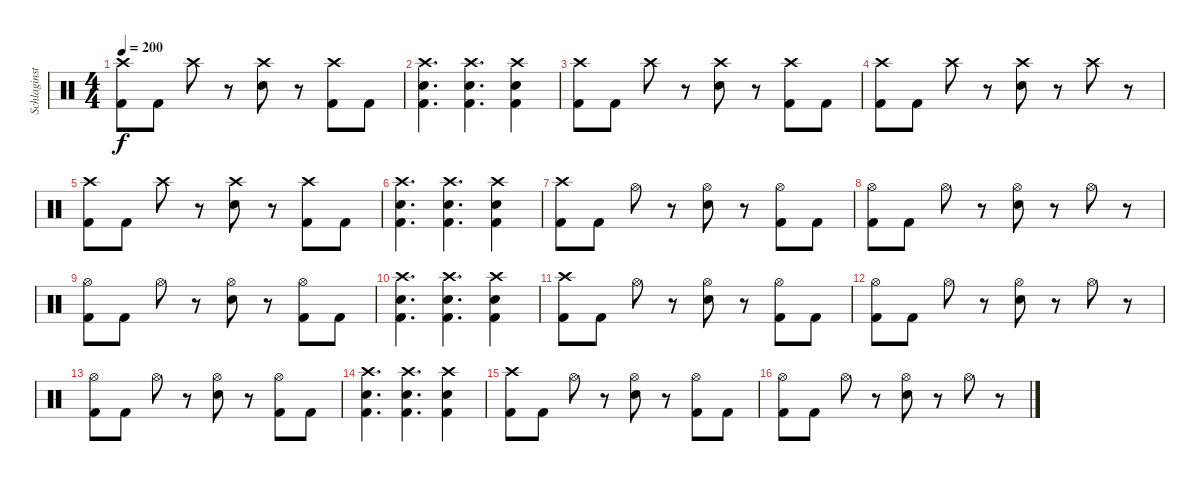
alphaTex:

\track ("Schlaginstrumente - Auswahl" "Schlaginst") {instrument percussion}
\staff {score}
\articulation defaults
\ts (4 4)
\tempo 200
\clef neutral
\ks c
("Crash high (hit)" "Kick (hit) 2").8{dy f} "Kick (hit) 2".8 "Crash high (hit)".8 r.8 ("Crash high (hit)" "Electric Snare (hit)").8 r.8 ("Crash high (hit)" "Kick (hit) 2").8 "Kick (hit) 2".8 |
("Crash high (hit)" "Electric Snare (hit)" "Kick (hit) 2").4{d} ("Crash high (hit)" "Electric Snare (hit)" "Kick (hit) 2").4{d} ("Crash high (hit)" "Electric Snare (hit)" "Kick (hit) 2").4 |
("Crash high (hit)" "Kick (hit) 2").8 "Kick (hit) 2".8 "Crash high (hit)".8 r.8 ("Crash high (hit)" "Electric Snare (hit)").8 r.8 ("Crash high (hit)" "Kick (hit) 2").8 "Kick (hit) 2".8 |
("Crash high (hit)" "Kick (hit) 2").8 "Kick (hit) 2".8 "Crash high (hit)".8 r.8 ("Crash high (hit)" "Electric Snare (hit)").8 r.8 "Crash high (hit)".8 r.8 |
("Crash high (hit)" "Kick (hit) 2").8 "Kick (hit) 2".8 "Crash high (hit)".8 r.8 ("Crash high (hit)" "Electric Snare (hit)").8 r.8 ("Crash high (hit)" "Kick (hit) 2").8 "Kick (hit) 2".8 |
("Crash high (hit)" "Electric Snare (hit)" "Kick (hit) 2").4{d} ("Crash high (hit)" "Electric Snare (hit)" "Kick (hit) 2").4{d} ("Crash high (hit)" "Electric Snare (hit)" "Kick (hit) 2").4 |
("Crash high (hit)" "Kick (hit) 2").8 "Kick (hit) 2".8 "Hi-Hat (open)".8 r.8 ("Hi-Hat (open)" "Electric Snare (hit)").8 r.8 ("Hi-Hat (open)" "Kick (hit) 2").8 "Kick (hit) 2".8 |
("Hi-Hat (open)" "Kick (hit) 2").8 "Kick (hit) 2".8 "Hi-Hat (open)".8 r.8 ("Hi-Hat (open)" "Electric Snare (hit)").8 r.8 "Hi-Hat (open)".8 r.8 |
("Hi-Hat (open)" "Kick (hit) 2").8 "Kick (hit) 2".8 "Hi-Hat (open)".8 r.8 ("Hi-Hat (open)" "Electric Snare (hit)").8 r.8 ("Hi-Hat (open)" "Kick (hit) 2").8 "Kick (hit) 2".8 |
("Crash high (hit)" "Electric Snare (hit)" "Kick (hit) 2").4{d} ("Crash high (hit)" "Electric Snare (hit)" "Kick (hit) 2").4{d} ("Crash high (hit)" "Electric Snare (hit)" "Kick (hit) 2").4 |
("Crash high (hit)" "Kick (hit) 2").8 "Kick (hit) 2".8 "Hi-Hat (open)".8 r.8 ("Hi-Hat (open)" "Electric Snare (hit)").8 r.8 ("Hi-Hat (open)" "Kick (hit) 2").8 "Kick (hit) 2".8 |
("Hi-Hat (open)" "Kick (hit) 2").8 "Kick (hit) 2".8 "Hi-Hat (open)".8 r.8 ("Hi-Hat (open)" "Electric Snare (hit)").8 r.8 "Hi-Hat (open)".8 r.8 |
("Hi-Hat (open)" "Kick (hit) 2").8 "Kick (hit) 2".8 "Hi-Hat (open)".8 r.8 ("Hi-Hat (open)" "Electric Snare (hit)").8 r.8 ("Hi-Hat (open)" "Kick (hit) 2").8 "Kick (hit) 2".8 |
("Crash high (hit)" "Electric Snare (hit)" "Kick (hit) 2").4{d} ("Crash high (hit)" "Electric Snare (hit)" "Kick (hit) 2").4{d} ("Crash high (hit)" "Electric Snare (hit)" "Kick (hit) 2").4 |
("Crash high (hit)" "Kick (hit) 2").8 "Kick (hit) 2".8 "Hi-Hat (open)".8 r.8 ("Hi-Hat (open)" "Electric Snare (hit)").8 r.8 ("Hi-Hat (open)" "Kick (hit) 2").8 "Kick (hit) 2".8 |
("Hi-Hat (open)" "Kick (hit) 2").8 "Kick (hit) 2".8 "Hi-Hat (open)".8 r.8 ("Hi-Hat (open)" "Electric Snare (hit)").8 r.8 "Hi-Hat (open)".8 r.8
